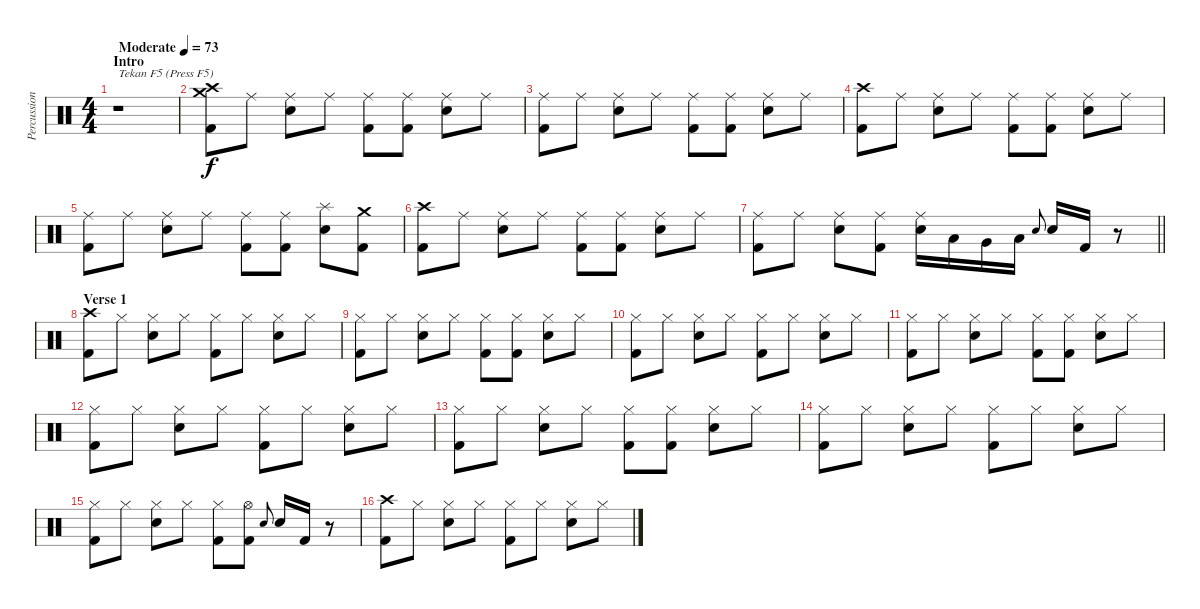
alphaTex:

\track ("Percussion" "Percussion") {instrument percussion}
\staff {score}
\articulation defaults
\ts (4 4)
\section ("" "Intro")
\tempo (73 "Moderate")
\clef neutral
\ks c
r.1{txt "Tekan F5 (Press F5)" dy f} |
("Crash medium (hit)" "Crash high (hit)" "Kick (hit) 2").8 "Ride (middle)".8 ("Ride (middle)" "Electric Snare (hit)").8 "Ride (middle)".8 ("Ride (middle)" "Kick (hit) 2").8 ("Ride (middle)" "Kick (hit) 2").8 ("Ride (middle)" "Electric Snare (hit)").8 "Ride (middle)".8 |
("Ride (middle)" "Kick (hit) 2").8 "Ride (middle)".8 ("Ride (middle)" "Electric Snare (hit)").8 "Ride (middle)".8 ("Ride (middle)" "Kick (hit) 2").8 ("Ride (middle)" "Kick (hit) 2").8 ("Ride (middle)" "Electric Snare (hit)").8 "Ride (middle)".8 |
("Crash high (hit)" "Kick (hit) 2").8 "Ride (middle)".8 ("Ride (middle)" "Electric Snare (hit)").8 "Ride (middle)".8 ("Ride (middle)" "Kick (hit) 2").8 ("Ride (middle)" "Kick (hit) 2").8 ("Ride (middle)" "Electric Snare (hit)").8 "Ride (middle)".8 |
("Ride (middle)" "Kick (hit) 2").8 "Ride (middle)".8 ("Ride (middle)" "Electric Snare (hit)").8 "Ride (middle)".8 ("Ride (middle)" "Kick (hit) 2").8 ("Ride (middle)" "Kick (hit) 2").8 ("Splash (hit)" "Electric Snare (hit)").8 ("Crash medium (hit)" "Kick (hit) 2").8 |
("Crash high (hit)" "Kick (hit) 2").8 "Ride (middle)".8 ("Ride (middle)" "Electric Snare (hit)").8 "Ride (middle)".8 ("Ride (middle)" "Kick (hit) 2").8 ("Ride (middle)" "Kick (hit) 2").8 ("Ride (middle)" "Electric Snare (hit)").8 "Ride (middle)".8 |
\barLineRight lightlight
("Ride (middle)" "Kick (hit) 2").8 "Ride (middle)".8 ("Ride (middle)" "Electric Snare (hit)").8 ("Ride (middle)" "Kick (hit) 2").8 ("Ride (middle)" "Electric Snare (hit)").16 "Low Tom (hit)".16 "Very Low Tom (hit)".16 "Low Floor Tom (hit)".16 "Electric Snare (hit)".8{gr onbeat} "Electric Snare (hit)".16 "Kick (hit) 2".16 r.8 |
\section ("" "Verse 1")
("Crash high (hit)" "Kick (hit) 2").8 "Hi-Hat (closed)".8 ("Hi-Hat (closed)" "Electric Snare (hit)").8 "Hi-Hat (closed)".8 ("Hi-Hat (closed)" "Kick (hit) 2").8 "Hi-Hat (closed)".8 ("Hi-Hat (closed)" "Electric Snare (hit)").8 "Hi-Hat (closed)".8 |
("Hi-Hat (closed)" "Kick (hit) 2").8 "Hi-Hat (closed)".8 ("Hi-Hat (closed)" "Electric Snare (hit)").8 "Hi-Hat (closed)".8 ("Hi-Hat (closed)" "Kick (hit) 2").8 ("Hi-Hat (closed)" "Kick (hit) 2").8 ("Hi-Hat (closed)" "Electric Snare (hit)").8 "Hi-Hat (closed)".8 |
("Hi-Hat (closed)" "Kick (hit) 2").8 "Hi-Hat (closed)".8 ("Hi-Hat (closed)" "Electric Snare (hit)").8 "Hi-Hat (closed)".8 ("Hi-Hat (closed)" "Kick (hit) 2").8 "Hi-Hat (closed)".8 ("Hi-Hat (closed)" "Electric Snare (hit)").8 "Hi-Hat (closed)".8 |
("Hi-Hat (closed)" "Kick (hit) 2").8 "Hi-Hat (closed)".8 ("Hi-Hat (closed)" "Electric Snare (hit)").8 "Hi-Hat (closed)".8 ("Hi-Hat (closed)" "Kick (hit) 2").8 ("Hi-Hat (closed)" "Kick (hit) 2").8 ("Hi-Hat (closed)" "Electric Snare (hit)").8 "Hi-Hat (closed)".8 |
("Hi-Hat (closed)" "Kick (hit) 2").8 "Hi-Hat (closed)".8 ("Hi-Hat (closed)" "Electric Snare (hit)").8 "Hi-Hat (closed)".8 ("Hi-Hat (closed)" "Kick (hit) 2").8 "Hi-Hat (closed)".8 ("Hi-Hat (closed)" "Electric Snare (hit)").8 "Hi-Hat (closed)".8 |
("Hi-Hat (closed)" "Kick (hit) 2").8 "Hi-Hat (closed)".8 ("Hi-Hat (closed)" "Electric Snare (hit)").8 "Hi-Hat (closed)".8 ("Hi-Hat (closed)" "Kick (hit) 2").8 ("Hi-Hat (closed)" "Kick (hit) 2").8 ("Hi-Hat (closed)" "Electric Snare (hit)").8 "Hi-Hat (closed)".8 |
("Hi-Hat (closed)" "Kick (hit) 2").8 "Hi-Hat (closed)".8 ("Hi-Hat (closed)" "Electric Snare (hit)").8 "Hi-Hat (closed)".8 ("Hi-Hat (closed)" "Kick (hit) 2").8 "Hi-Hat (closed)".8 ("Hi-Hat (closed)" "Electric Snare (hit)").8 "Hi-Hat (closed)".8 |
("Hi-Hat (closed)" "Kick (hit) 2").8 "Hi-Hat (closed)".8 ("Hi-Hat (closed)" "Electric Snare (hit)").8 "Hi-Hat (closed)".8 ("Hi-Hat (closed)" "Kick (hit) 2").8 ("Hi-Hat (open)" "Kick (hit) 2").8 "Electric Snare (hit)".8{gr onbeat} "Electric Snare (hit)".16 "Kick (hit) 2".16 r.8 |
("Crash high (hit)" "Kick (hit) 2").8 "Hi-Hat (closed)".8 ("Hi-Hat (closed)" "Electric Snare (hit)").8 "Hi-Hat (closed)".8 ("Hi-Hat (closed)" "Kick (hit) 2").8 "Hi-Hat (closed)".8 ("Hi-Hat (closed)" "Electric Snare (hit)").8 "Hi-Hat (closed)".8
